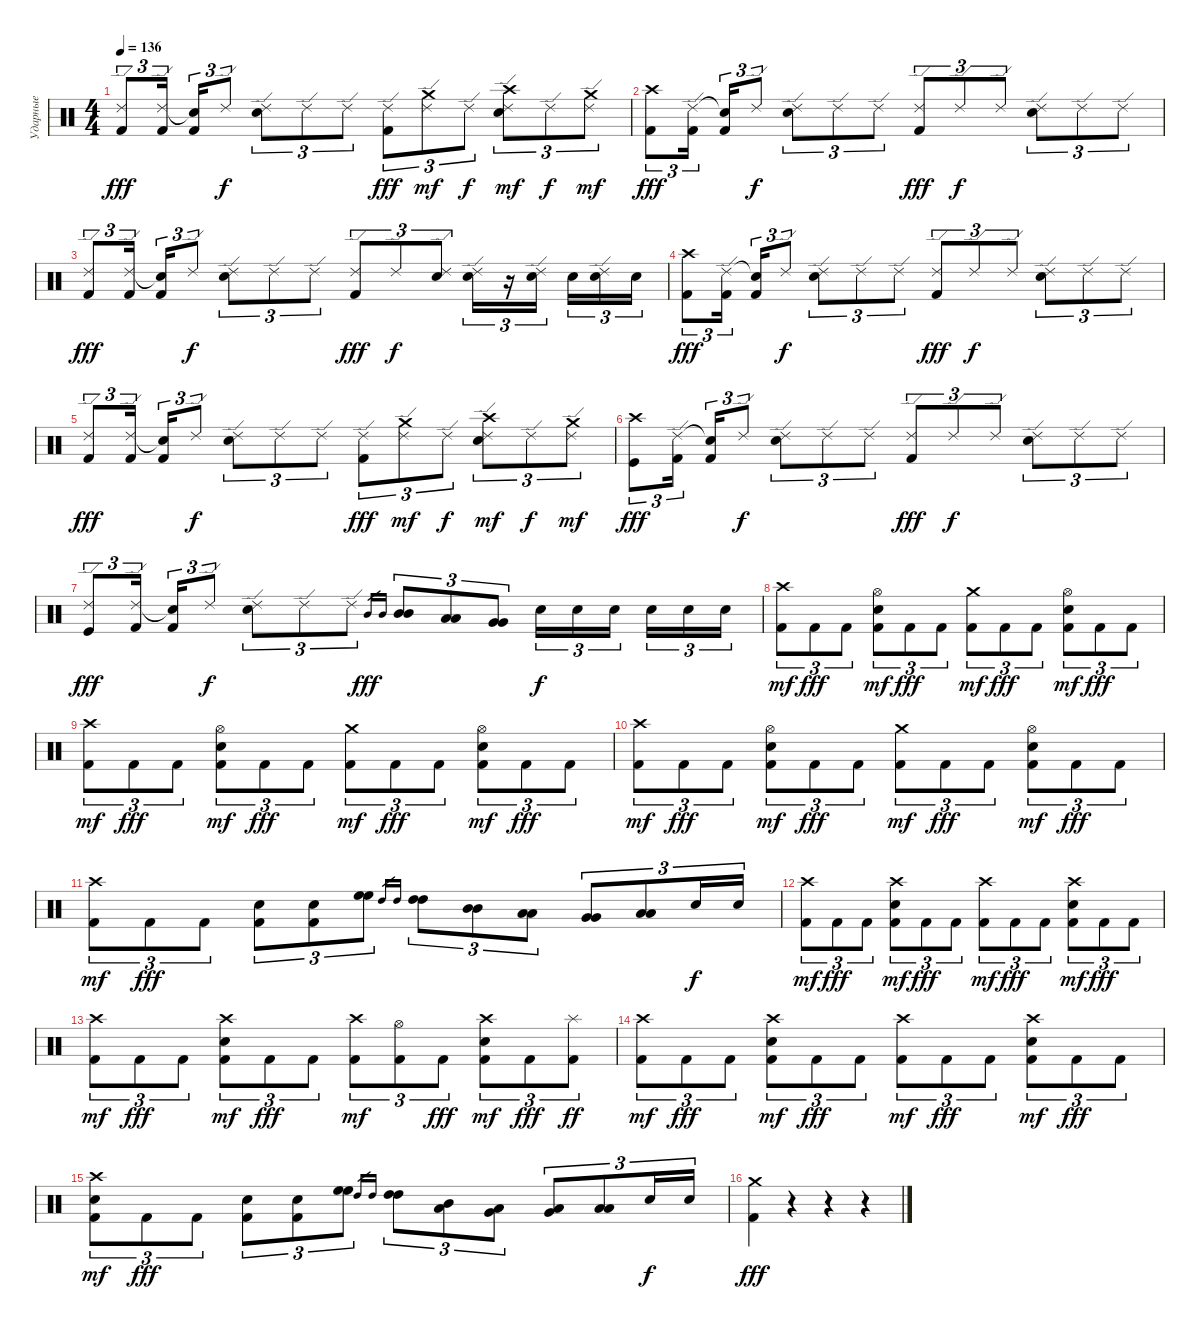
\track ("Ударные" "Ударные") {instrument percussion}
\staff {score}
\articulation defaults
\ts (4 4)
\tempo 136
\clef neutral
\ks c
("Ride (edge) 2" "Kick (hit) 2").8{tu (3 2) dy fff} ("Ride (edge) 2" "Kick (hit) 2").16{tu (3 2)} ("Snare (hit)"{t} "Kick (hit) 2").16{tu (3 2)} "Ride (edge) 2".8{tu (3 2) dy f} ("Ride (edge) 2" "Electric Snare (hit)").8{tu (3 2)} "Ride (edge) 2".8{tu (3 2)} "Ride (edge) 2".8{tu (3 2)} ("Ride (edge) 2" "Kick (hit) 2").8{tu (3 2) dy fff} ("Ride (edge) 2" "Crash medium (hit)").8{tu (3 2) dy mf} "Ride (edge) 2".8{tu (3 2) dy f} ("Ride (edge) 2" "Electric Snare (hit)" "Crash high (hit)").8{tu (3 2) dy mf} "Ride (edge) 2".8{tu (3 2) dy f} ("Ride (edge) 2" "Crash medium (hit)").8{tu (3 2) dy mf} |
("Crash high (hit)" "Kick (hit) 2").8{tu (3 2) dy fff} ("Ride (edge) 2" "Kick (hit) 2").16{tu (3 2)} ("Snare (hit)"{t} "Kick (hit) 2").16{tu (3 2)} "Ride (edge) 2".8{tu (3 2) dy f} ("Ride (edge) 2" "Electric Snare (hit)").8{tu (3 2)} "Ride (edge) 2".8{tu (3 2)} "Ride (edge) 2".8{tu (3 2)} ("Ride (edge) 2" "Kick (hit) 2").8{tu (3 2) dy fff} "Ride (edge) 2".8{tu (3 2) dy f} "Ride (edge) 2".8{tu (3 2)} ("Ride (edge) 2" "Electric Snare (hit)").8{tu (3 2)} "Ride (edge) 2".8{tu (3 2)} "Ride (edge) 2".8{tu (3 2)} |
("Ride (edge) 2" "Kick (hit) 2").8{tu (3 2) dy fff} ("Ride (edge) 2" "Kick (hit) 2").16{tu (3 2)} ("Snare (hit)"{t} "Kick (hit) 2").16{tu (3 2)} "Ride (edge) 2".8{tu (3 2) dy f} ("Ride (edge) 2" "Electric Snare (hit)").8{tu (3 2)} "Ride (edge) 2".8{tu (3 2)} "Ride (edge) 2".8{tu (3 2)} ("Ride (edge) 2" "Kick (hit) 2").8{tu (3 2) dy fff} "Ride (edge) 2".8{tu (3 2) dy f} ("Ride (edge) 2" "Electric Snare (hit)").8{tu (3 2)} ("Ride (edge) 2" "Electric Snare (hit)").16{tu (3 2)} r.16{tu (3 2)} ("Ride (edge) 2" "Electric Snare (hit)").16{tu (3 2)} "Electric Snare (hit)".16{tu (3 2)} ("Ride (edge) 2" "Electric Snare (hit)").16{tu (3 2)} "Electric Snare (hit)".16{tu (3 2)} |
("Crash high (hit)" "Kick (hit) 2").8{tu (3 2) dy fff} ("Ride (edge) 2" "Kick (hit) 2").16{tu (3 2)} ("Snare (hit)"{t} "Kick (hit) 2").16{tu (3 2)} "Ride (edge) 2".8{tu (3 2) dy f} ("Ride (edge) 2" "Electric Snare (hit)").8{tu (3 2)} "Ride (edge) 2".8{tu (3 2)} "Ride (edge) 2".8{tu (3 2)} ("Ride (edge) 2" "Kick (hit) 2").8{tu (3 2) dy fff} "Ride (edge) 2".8{tu (3 2) dy f} "Ride (edge) 2".8{tu (3 2)} ("Ride (edge) 2" "Electric Snare (hit)").8{tu (3 2)} "Ride (edge) 2".8{tu (3 2)} "Ride (edge) 2".8{tu (3 2)} |
("Ride (edge) 2" "Kick (hit) 2").8{tu (3 2) dy fff} ("Ride (edge) 2" "Kick (hit) 2").16{tu (3 2)} ("Snare (hit)"{t} "Kick (hit) 2").16{tu (3 2)} "Ride (edge) 2".8{tu (3 2) dy f} ("Ride (edge) 2" "Electric Snare (hit)").8{tu (3 2)} "Ride (edge) 2".8{tu (3 2)} "Ride (edge) 2".8{tu (3 2)} ("Ride (edge) 2" "Kick (hit) 2").8{tu (3 2) dy fff} ("Ride (edge) 2" "Crash medium (hit)").8{tu (3 2) dy mf} "Ride (edge) 2".8{tu (3 2) dy f} ("Ride (edge) 2" "Electric Snare (hit)" "Crash high (hit)").8{tu (3 2) dy mf} "Ride (edge) 2".8{tu (3 2) dy f} ("Ride (edge) 2" "Crash medium (hit)").8{tu (3 2) dy mf} |
("Crash high (hit)" "Kick (hit)").8{tu (3 2) dy fff} ("Ride (edge) 2" "Kick (hit) 2").16{tu (3 2)} ("Snare (hit)"{t} "Kick (hit) 2").16{tu (3 2)} "Ride (edge) 2".8{tu (3 2) dy f} ("Ride (edge) 2" "Electric Snare (hit)").8{tu (3 2)} "Ride (edge) 2".8{tu (3 2)} "Ride (edge) 2".8{tu (3 2)} ("Ride (edge) 2" "Kick (hit) 2").8{tu (3 2) dy fff} "Ride (edge) 2".8{tu (3 2) dy f} "Ride (edge) 2".8{tu (3 2)} ("Ride (edge) 2" "Electric Snare (hit)").8{tu (3 2)} "Ride (edge) 2".8{tu (3 2)} "Ride (edge) 2".8{tu (3 2)} |
("Ride (edge) 2" "Kick (hit)").8{tu (3 2) dy fff} ("Ride (edge) 2" "Kick (hit) 2").16{tu (3 2)} ("Snare (hit)"{t} "Kick (hit) 2").16{tu (3 2)} "Ride (edge) 2".8{tu (3 2) dy f} ("Ride (edge) 2" "Electric Snare (hit)").8{tu (3 2)} "Ride (edge) 2".8{tu (3 2)} "Ride (edge) 2".8{tu (3 2)} "Mid Tom (hit)".16{gr dy fff} "Mid Tom (hit)".16{gr} ("Mid Tom (hit)" "Mid Tom (hit)").8{tu (3 2)} ("Low Tom (hit)" "Low Tom (hit)").8{tu (3 2)} ("Very Low Tom (hit)" "Very Low Tom (hit)").8{tu (3 2)} "Electric Snare (hit)".16{tu (3 2) dy f} "Electric Snare (hit)".16{tu (3 2)} "Electric Snare (hit)".16{tu (3 2)} "Electric Snare (hit)".16{tu (3 2)} "Electric Snare (hit)".16{tu (3 2)} "Electric Snare (hit)".16{tu (3 2)} |
("Kick (hit) 2" "Crash high (hit)").8{tu (3 2) dy mf} "Kick (hit) 2".8{tu (3 2) dy fff} "Kick (hit) 2".8{tu (3 2)} ("Kick (hit) 2" "Hi-Hat (open)" "Electric Snare (hit)").8{tu (3 2) dy mf} "Kick (hit) 2".8{tu (3 2) dy fff} "Kick (hit) 2".8{tu (3 2)} ("Kick (hit) 2" "Crash medium (hit)").8{tu (3 2) dy mf} "Kick (hit) 2".8{tu (3 2) dy fff} "Kick (hit) 2".8{tu (3 2)} ("Kick (hit) 2" "Hi-Hat (open)" "Electric Snare (hit)").8{tu (3 2) dy mf} "Kick (hit) 2".8{tu (3 2) dy fff} "Kick (hit) 2".8{tu (3 2)} |
("Kick (hit) 2" "Crash high (hit)").8{tu (3 2) dy mf} "Kick (hit) 2".8{tu (3 2) dy fff} "Kick (hit) 2".8{tu (3 2)} ("Kick (hit) 2" "Hi-Hat (open)" "Electric Snare (hit)").8{tu (3 2) dy mf} "Kick (hit) 2".8{tu (3 2) dy fff} "Kick (hit) 2".8{tu (3 2)} ("Kick (hit) 2" "Crash medium (hit)").8{tu (3 2) dy mf} "Kick (hit) 2".8{tu (3 2) dy fff} "Kick (hit) 2".8{tu (3 2)} ("Kick (hit) 2" "Hi-Hat (open)" "Electric Snare (hit)").8{tu (3 2) dy mf} "Kick (hit) 2".8{tu (3 2) dy fff} "Kick (hit) 2".8{tu (3 2)} |
("Kick (hit) 2" "Crash high (hit)").8{tu (3 2) dy mf} "Kick (hit) 2".8{tu (3 2) dy fff} "Kick (hit) 2".8{tu (3 2)} ("Kick (hit) 2" "Hi-Hat (open)" "Electric Snare (hit)").8{tu (3 2) dy mf} "Kick (hit) 2".8{tu (3 2) dy fff} "Kick (hit) 2".8{tu (3 2)} ("Kick (hit) 2" "Crash medium (hit)").8{tu (3 2) dy mf} "Kick (hit) 2".8{tu (3 2) dy fff} "Kick (hit) 2".8{tu (3 2)} ("Kick (hit) 2" "Hi-Hat (open)" "Electric Snare (hit)").8{tu (3 2) dy mf} "Kick (hit) 2".8{tu (3 2) dy fff} "Kick (hit) 2".8{tu (3 2)} |
("Kick (hit) 2" "Crash high (hit)").8{tu (3 2) dy mf} "Kick (hit) 2".8{tu (3 2) dy fff} "Kick (hit) 2".8{tu (3 2)} ("Kick (hit) 2" "Electric Snare (hit)").8{tu (3 2)} ("Kick (hit) 2" "Electric Snare (hit)").8{tu (3 2)} ("High Floor Tom (hit)" "High Floor Tom (hit)").8{tu (3 2)} "High Tom (hit)".16{gr} "High Tom (hit)".16{gr} ("High Tom (hit)" "High Tom (hit)").8{tu (3 2)} ("Mid Tom (hit)" "Mid Tom (hit)").8{tu (3 2)} ("Low Tom (hit)" "Low Tom (hit)").8{tu (3 2)} ("Very Low Tom (hit)" "Very Low Tom (hit)").8{tu (3 2)} ("Low Floor Tom (hit)" "Low Floor Tom (hit)").8{tu (3 2)} "Electric Snare (hit)".16{tu (3 2) dy f} "Electric Snare (hit)".16{tu (3 2)} |
("Kick (hit) 2" "Crash high (hit)").8{tu (3 2) dy mf} "Kick (hit) 2".8{tu (3 2) dy fff} "Kick (hit) 2".8{tu (3 2)} ("Kick (hit) 2" "Crash high (hit)" "Electric Snare (hit)").8{tu (3 2) dy mf} "Kick (hit) 2".8{tu (3 2) dy fff} "Kick (hit) 2".8{tu (3 2)} ("Kick (hit) 2" "Crash high (hit)").8{tu (3 2) dy mf} "Kick (hit) 2".8{tu (3 2) dy fff} "Kick (hit) 2".8{tu (3 2)} ("Kick (hit) 2" "Crash high (hit)" "Electric Snare (hit)").8{tu (3 2) dy mf} "Kick (hit) 2".8{tu (3 2) dy fff} "Kick (hit) 2".8{tu (3 2)} |
("Kick (hit) 2" "Crash high (hit)").8{tu (3 2) dy mf} "Kick (hit) 2".8{tu (3 2) dy fff} "Kick (hit) 2".8{tu (3 2)} ("Kick (hit) 2" "Crash high (hit)" "Electric Snare (hit)").8{tu (3 2) dy mf} "Kick (hit) 2".8{tu (3 2) dy fff} "Kick (hit) 2".8{tu (3 2)} ("Kick (hit) 2" "Crash high (hit)").8{tu (3 2) dy mf} ("Kick (hit) 2" "Hi-Hat (open)").8{tu (3 2)} "Kick (hit) 2".8{tu (3 2) dy fff} ("Kick (hit) 2" "Crash high (hit)" "Electric Snare (hit)").8{tu (3 2) dy mf} "Kick (hit) 2".8{tu (3 2) dy fff} ("Kick (hit) 2" "Splash (hit)").8{tu (3 2) dy ff} |
("Kick (hit) 2" "Crash high (hit)").8{tu (3 2) dy mf} "Kick (hit) 2".8{tu (3 2) dy fff} "Kick (hit) 2".8{tu (3 2)} ("Kick (hit) 2" "Crash high (hit)" "Electric Snare (hit)").8{tu (3 2) dy mf} "Kick (hit) 2".8{tu (3 2) dy fff} "Kick (hit) 2".8{tu (3 2)} ("Kick (hit) 2" "Crash high (hit)").8{tu (3 2) dy mf} "Kick (hit) 2".8{tu (3 2) dy fff} "Kick (hit) 2".8{tu (3 2)} ("Kick (hit) 2" "Crash high (hit)" "Electric Snare (hit)").8{tu (3 2) dy mf} "Kick (hit) 2".8{tu (3 2) dy fff} "Kick (hit) 2".8{tu (3 2)} |
("Kick (hit) 2" "Crash high (hit)" "Electric Snare (hit)").8{tu (3 2) dy mf} "Kick (hit) 2".8{tu (3 2) dy fff} "Kick (hit) 2".8{tu (3 2)} ("Kick (hit) 2" "Electric Snare (hit)").8{tu (3 2)} ("Kick (hit) 2" "Electric Snare (hit)").8{tu (3 2)} ("High Floor Tom (hit)" "High Floor Tom (hit)").8{tu (3 2)} "High Tom (hit)".16{gr} "High Tom (hit)".16{gr} ("High Tom (hit)" "High Tom (hit)").8{tu (3 2)} ("Mid Tom (hit)" "Low Tom (hit)").8{tu (3 2)} ("Low Tom (hit)" "Very Low Tom (hit)").8{tu (3 2)} ("Very Low Tom (hit)" "Low Floor Tom (hit)").8{tu (3 2)} ("Low Floor Tom (hit)" "Low Floor Tom (hit)").8{tu (3 2)} "Electric Snare (hit)".16{tu (3 2) dy f} "Electric Snare (hit)".16{tu (3 2)} |
("Crash medium (hit)" "Kick (hit) 2").4{dy fff} r.4 r.4 r.4
